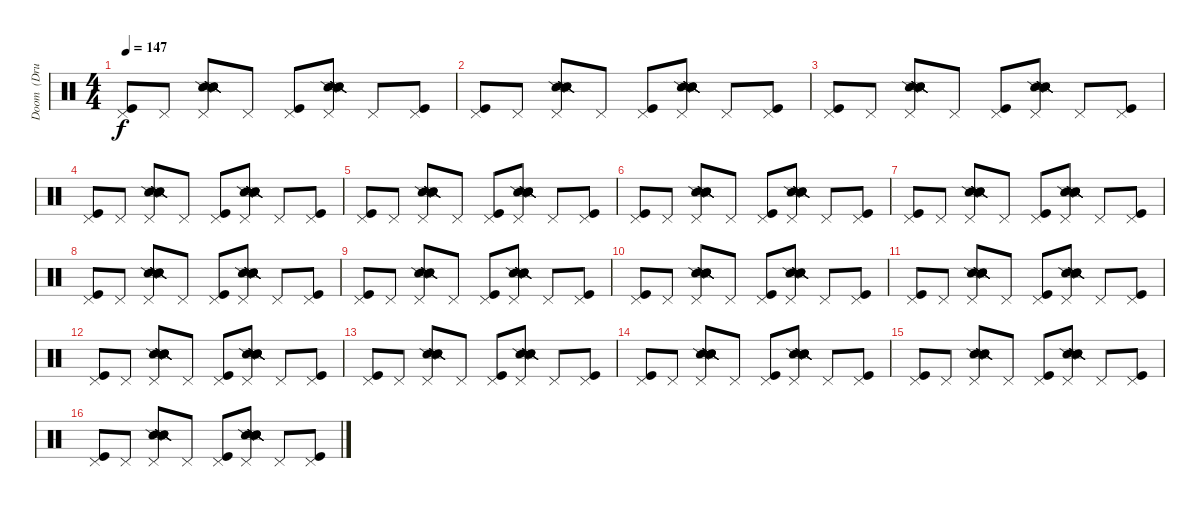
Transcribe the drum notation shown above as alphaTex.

\track ("Doom  (Drums)" "Doom  (Dru") {instrument percussion}
\staff {score}
\articulation defaults
\ts (4 4)
\tempo 147
\clef neutral
\ks c
("Pedal Hi-Hat (hit)" "Kick (hit)").8{dy f} "Pedal Hi-Hat (hit)".8 ("Pedal Hi-Hat (hit)" "Snare (side stick) 2" "Snare (side stick) 2" "Snare (side stick) 2" "Snare (side stick) 2" "Snare (side stick) 2").8 "Pedal Hi-Hat (hit)".8 ("Pedal Hi-Hat (hit)" "Kick (hit)").8 ("Pedal Hi-Hat (hit)" "Snare (side stick) 2" "Snare (side stick) 2" "Snare (side stick) 2" "Snare (side stick) 2" "Snare (side stick) 2").8 "Pedal Hi-Hat (hit)".8 ("Pedal Hi-Hat (hit)" "Kick (hit)").8 |
("Pedal Hi-Hat (hit)" "Kick (hit)").8 "Pedal Hi-Hat (hit)".8 ("Pedal Hi-Hat (hit)" "Snare (side stick) 2" "Snare (side stick) 2" "Snare (side stick) 2" "Snare (side stick) 2" "Snare (side stick) 2").8 "Pedal Hi-Hat (hit)".8 ("Pedal Hi-Hat (hit)" "Kick (hit)").8 ("Pedal Hi-Hat (hit)" "Snare (side stick) 2" "Snare (side stick) 2" "Snare (side stick) 2" "Snare (side stick) 2" "Snare (side stick) 2").8 "Pedal Hi-Hat (hit)".8 ("Pedal Hi-Hat (hit)" "Kick (hit)").8 |
("Pedal Hi-Hat (hit)" "Kick (hit)").8 "Pedal Hi-Hat (hit)".8 ("Pedal Hi-Hat (hit)" "Snare (side stick) 2" "Snare (side stick) 2" "Snare (side stick) 2" "Snare (side stick) 2" "Snare (side stick) 2").8 "Pedal Hi-Hat (hit)".8 ("Pedal Hi-Hat (hit)" "Kick (hit)").8 ("Pedal Hi-Hat (hit)" "Snare (side stick) 2" "Snare (side stick) 2" "Snare (side stick) 2" "Snare (side stick) 2" "Snare (side stick) 2").8 "Pedal Hi-Hat (hit)".8 ("Pedal Hi-Hat (hit)" "Kick (hit)").8 |
("Pedal Hi-Hat (hit)" "Kick (hit)").8 "Pedal Hi-Hat (hit)".8 ("Pedal Hi-Hat (hit)" "Snare (side stick) 2" "Snare (side stick) 2" "Snare (side stick) 2" "Snare (side stick) 2" "Snare (side stick) 2").8 "Pedal Hi-Hat (hit)".8 ("Pedal Hi-Hat (hit)" "Kick (hit)").8 ("Pedal Hi-Hat (hit)" "Snare (side stick) 2" "Snare (side stick) 2" "Snare (side stick) 2" "Snare (side stick) 2" "Snare (side stick) 2").8 "Pedal Hi-Hat (hit)".8 ("Pedal Hi-Hat (hit)" "Kick (hit)").8 |
("Pedal Hi-Hat (hit)" "Kick (hit)").8 "Pedal Hi-Hat (hit)".8 ("Pedal Hi-Hat (hit)" "Snare (side stick) 2" "Snare (side stick) 2" "Snare (side stick) 2" "Snare (side stick) 2" "Snare (side stick) 2").8 "Pedal Hi-Hat (hit)".8 ("Pedal Hi-Hat (hit)" "Kick (hit)").8 ("Pedal Hi-Hat (hit)" "Snare (side stick) 2" "Snare (side stick) 2" "Snare (side stick) 2" "Snare (side stick) 2" "Snare (side stick) 2").8 "Pedal Hi-Hat (hit)".8 ("Pedal Hi-Hat (hit)" "Kick (hit)").8 |
("Pedal Hi-Hat (hit)" "Kick (hit)").8 "Pedal Hi-Hat (hit)".8 ("Pedal Hi-Hat (hit)" "Snare (side stick) 2" "Snare (side stick) 2" "Snare (side stick) 2" "Snare (side stick) 2" "Snare (side stick) 2").8 "Pedal Hi-Hat (hit)".8 ("Pedal Hi-Hat (hit)" "Kick (hit)").8 ("Pedal Hi-Hat (hit)" "Snare (side stick) 2" "Snare (side stick) 2" "Snare (side stick) 2" "Snare (side stick) 2" "Snare (side stick) 2").8 "Pedal Hi-Hat (hit)".8 ("Pedal Hi-Hat (hit)" "Kick (hit)").8 |
("Pedal Hi-Hat (hit)" "Kick (hit)").8 "Pedal Hi-Hat (hit)".8 ("Pedal Hi-Hat (hit)" "Snare (side stick) 2" "Snare (side stick) 2" "Snare (side stick) 2" "Snare (side stick) 2" "Snare (side stick) 2").8 "Pedal Hi-Hat (hit)".8 ("Pedal Hi-Hat (hit)" "Kick (hit)").8 ("Pedal Hi-Hat (hit)" "Snare (side stick) 2" "Snare (side stick) 2" "Snare (side stick) 2" "Snare (side stick) 2" "Snare (side stick) 2").8 "Pedal Hi-Hat (hit)".8 ("Pedal Hi-Hat (hit)" "Kick (hit)").8 |
("Pedal Hi-Hat (hit)" "Kick (hit)").8 "Pedal Hi-Hat (hit)".8 ("Pedal Hi-Hat (hit)" "Snare (side stick) 2" "Snare (side stick) 2" "Snare (side stick) 2" "Snare (side stick) 2" "Snare (side stick) 2").8 "Pedal Hi-Hat (hit)".8 ("Pedal Hi-Hat (hit)" "Kick (hit)").8 ("Pedal Hi-Hat (hit)" "Snare (side stick) 2" "Snare (side stick) 2" "Snare (side stick) 2" "Snare (side stick) 2" "Snare (side stick) 2").8 "Pedal Hi-Hat (hit)".8 ("Pedal Hi-Hat (hit)" "Kick (hit)").8 |
("Pedal Hi-Hat (hit)" "Kick (hit)").8 "Pedal Hi-Hat (hit)".8 ("Pedal Hi-Hat (hit)" "Snare (side stick) 2" "Snare (side stick) 2" "Snare (side stick) 2" "Snare (side stick) 2" "Snare (side stick) 2").8 "Pedal Hi-Hat (hit)".8 ("Pedal Hi-Hat (hit)" "Kick (hit)").8 ("Pedal Hi-Hat (hit)" "Snare (side stick) 2" "Snare (side stick) 2" "Snare (side stick) 2" "Snare (side stick) 2" "Snare (side stick) 2").8 "Pedal Hi-Hat (hit)".8 ("Pedal Hi-Hat (hit)" "Kick (hit)").8 |
("Pedal Hi-Hat (hit)" "Kick (hit)").8 "Pedal Hi-Hat (hit)".8 ("Pedal Hi-Hat (hit)" "Snare (side stick) 2" "Snare (side stick) 2" "Snare (side stick) 2" "Snare (side stick) 2" "Snare (side stick) 2").8 "Pedal Hi-Hat (hit)".8 ("Pedal Hi-Hat (hit)" "Kick (hit)").8 ("Pedal Hi-Hat (hit)" "Snare (side stick) 2" "Snare (side stick) 2" "Snare (side stick) 2" "Snare (side stick) 2" "Snare (side stick) 2").8 "Pedal Hi-Hat (hit)".8 ("Pedal Hi-Hat (hit)" "Kick (hit)").8 |
("Pedal Hi-Hat (hit)" "Kick (hit)").8 "Pedal Hi-Hat (hit)".8 ("Pedal Hi-Hat (hit)" "Snare (side stick) 2" "Snare (side stick) 2" "Snare (side stick) 2" "Snare (side stick) 2" "Snare (side stick) 2").8 "Pedal Hi-Hat (hit)".8 ("Pedal Hi-Hat (hit)" "Kick (hit)").8 ("Pedal Hi-Hat (hit)" "Snare (side stick) 2" "Snare (side stick) 2" "Snare (side stick) 2" "Snare (side stick) 2" "Snare (side stick) 2").8 "Pedal Hi-Hat (hit)".8 ("Pedal Hi-Hat (hit)" "Kick (hit)").8 |
("Pedal Hi-Hat (hit)" "Kick (hit)").8 "Pedal Hi-Hat (hit)".8 ("Pedal Hi-Hat (hit)" "Snare (side stick) 2" "Snare (side stick) 2" "Snare (side stick) 2" "Snare (side stick) 2" "Snare (side stick) 2").8 "Pedal Hi-Hat (hit)".8 ("Pedal Hi-Hat (hit)" "Kick (hit)").8 ("Pedal Hi-Hat (hit)" "Snare (side stick) 2" "Snare (side stick) 2" "Snare (side stick) 2" "Snare (side stick) 2" "Snare (side stick) 2").8 "Pedal Hi-Hat (hit)".8 ("Pedal Hi-Hat (hit)" "Kick (hit)").8 |
("Pedal Hi-Hat (hit)" "Kick (hit)").8 "Pedal Hi-Hat (hit)".8 ("Pedal Hi-Hat (hit)" "Snare (side stick) 2" "Snare (side stick) 2" "Snare (side stick) 2" "Snare (side stick) 2" "Snare (side stick) 2").8 "Pedal Hi-Hat (hit)".8 ("Pedal Hi-Hat (hit)" "Kick (hit)").8 ("Pedal Hi-Hat (hit)" "Snare (side stick) 2" "Snare (side stick) 2" "Snare (side stick) 2" "Snare (side stick) 2" "Snare (side stick) 2").8 "Pedal Hi-Hat (hit)".8 ("Pedal Hi-Hat (hit)" "Kick (hit)").8 |
("Pedal Hi-Hat (hit)" "Kick (hit)").8 "Pedal Hi-Hat (hit)".8 ("Pedal Hi-Hat (hit)" "Snare (side stick) 2" "Snare (side stick) 2" "Snare (side stick) 2" "Snare (side stick) 2" "Snare (side stick) 2").8 "Pedal Hi-Hat (hit)".8 ("Pedal Hi-Hat (hit)" "Kick (hit)").8 ("Pedal Hi-Hat (hit)" "Snare (side stick) 2" "Snare (side stick) 2" "Snare (side stick) 2" "Snare (side stick) 2" "Snare (side stick) 2").8 "Pedal Hi-Hat (hit)".8 ("Pedal Hi-Hat (hit)" "Kick (hit)").8 |
("Pedal Hi-Hat (hit)" "Kick (hit)").8 "Pedal Hi-Hat (hit)".8 ("Pedal Hi-Hat (hit)" "Snare (side stick) 2" "Snare (side stick) 2" "Snare (side stick) 2" "Snare (side stick) 2" "Snare (side stick) 2").8 "Pedal Hi-Hat (hit)".8 ("Pedal Hi-Hat (hit)" "Kick (hit)").8 ("Pedal Hi-Hat (hit)" "Snare (side stick) 2" "Snare (side stick) 2" "Snare (side stick) 2" "Snare (side stick) 2" "Snare (side stick) 2").8 "Pedal Hi-Hat (hit)".8 ("Pedal Hi-Hat (hit)" "Kick (hit)").8 |
("Pedal Hi-Hat (hit)" "Kick (hit)").8 "Pedal Hi-Hat (hit)".8 ("Pedal Hi-Hat (hit)" "Snare (side stick) 2" "Snare (side stick) 2" "Snare (side stick) 2" "Snare (side stick) 2" "Snare (side stick) 2").8 "Pedal Hi-Hat (hit)".8 ("Pedal Hi-Hat (hit)" "Kick (hit)").8 ("Pedal Hi-Hat (hit)" "Snare (side stick) 2" "Snare (side stick) 2" "Snare (side stick) 2" "Snare (side stick) 2" "Snare (side stick) 2").8 "Pedal Hi-Hat (hit)".8 ("Pedal Hi-Hat (hit)" "Kick (hit)").8
